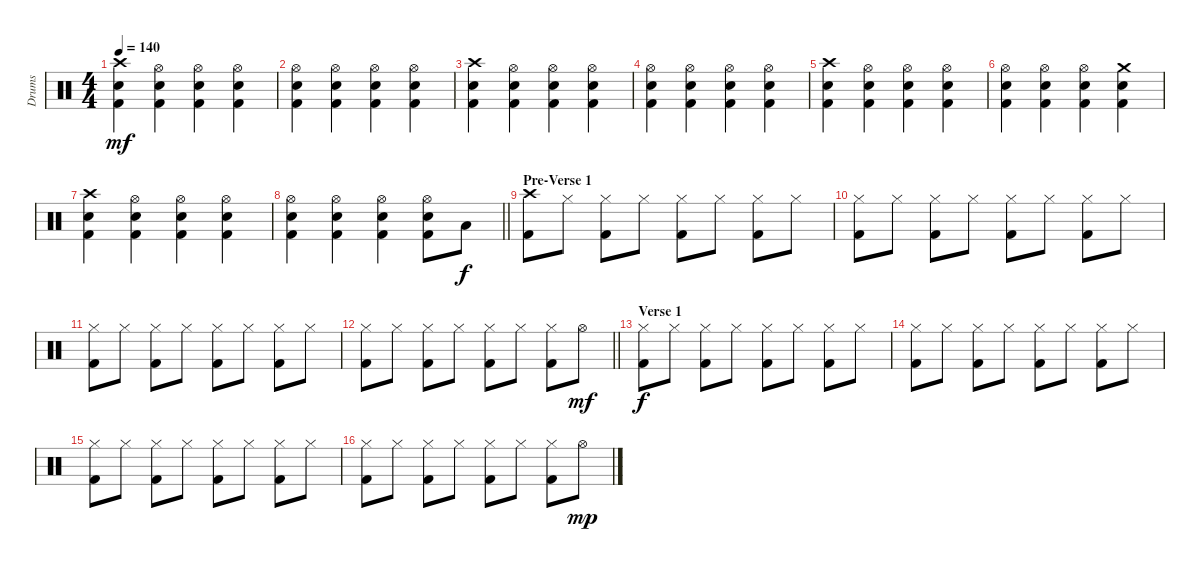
\track ("Drums" "Drums") {instrument percussion}
\staff {score}
\articulation defaults
\ts (4 4)
\tempo 140
\clef neutral
\ks c
("Crash high (hit)" "Electric Snare (hit)" "Kick (hit) 2").4{dy mf} ("Hi-Hat (open)" "Electric Snare (hit)" "Kick (hit) 2").4 ("Hi-Hat (open)" "Electric Snare (hit)" "Kick (hit) 2").4 ("Hi-Hat (open)" "Electric Snare (hit)" "Kick (hit) 2").4 |
("Hi-Hat (open)" "Electric Snare (hit)" "Kick (hit) 2").4 ("Hi-Hat (open)" "Electric Snare (hit)" "Kick (hit) 2").4 ("Hi-Hat (open)" "Electric Snare (hit)" "Kick (hit) 2").4 ("Hi-Hat (open)" "Electric Snare (hit)" "Kick (hit) 2").4 |
("Crash high (hit)" "Electric Snare (hit)" "Kick (hit) 2").4 ("Hi-Hat (open)" "Electric Snare (hit)" "Kick (hit) 2").4 ("Hi-Hat (open)" "Electric Snare (hit)" "Kick (hit) 2").4 ("Hi-Hat (open)" "Electric Snare (hit)" "Kick (hit) 2").4 |
("Hi-Hat (open)" "Electric Snare (hit)" "Kick (hit) 2").4 ("Hi-Hat (open)" "Electric Snare (hit)" "Kick (hit) 2").4 ("Hi-Hat (open)" "Electric Snare (hit)" "Kick (hit) 2").4 ("Hi-Hat (open)" "Electric Snare (hit)" "Kick (hit) 2").4 |
("Crash high (hit)" "Electric Snare (hit)" "Kick (hit) 2").4 ("Hi-Hat (open)" "Electric Snare (hit)" "Kick (hit) 2").4 ("Hi-Hat (open)" "Electric Snare (hit)" "Kick (hit) 2").4 ("Hi-Hat (open)" "Electric Snare (hit)" "Kick (hit) 2").4 |
("Hi-Hat (open)" "Electric Snare (hit)" "Kick (hit) 2").4 ("Hi-Hat (open)" "Electric Snare (hit)" "Kick (hit) 2").4 ("Hi-Hat (open)" "Electric Snare (hit)" "Kick (hit) 2").4 ("Crash medium (hit)" "Electric Snare (hit)" "Kick (hit) 2").4 |
("Crash high (hit)" "Electric Snare (hit)" "Kick (hit) 2").4 ("Hi-Hat (open)" "Electric Snare (hit)" "Kick (hit) 2").4 ("Hi-Hat (open)" "Electric Snare (hit)" "Kick (hit) 2").4 ("Hi-Hat (open)" "Electric Snare (hit)" "Kick (hit) 2").4 |
\barLineRight lightlight
("Hi-Hat (open)" "Electric Snare (hit)" "Kick (hit) 2").4 ("Hi-Hat (open)" "Electric Snare (hit)" "Kick (hit) 2").4 ("Hi-Hat (open)" "Electric Snare (hit)" "Kick (hit) 2").4 ("Hi-Hat (open)" "Electric Snare (hit)" "Kick (hit) 2").8 "Low Floor Tom (hit)".8{dy f} |
\section ("" "Pre-Verse 1")
("Crash high (hit)" "Kick (hit) 2").8 "Hi-Hat (closed)".8 ("Hi-Hat (closed)" "Kick (hit) 2").8 "Hi-Hat (closed)".8 ("Hi-Hat (closed)" "Kick (hit) 2").8 "Hi-Hat (closed)".8 ("Hi-Hat (closed)" "Kick (hit) 2").8 "Hi-Hat (closed)".8 |
("Hi-Hat (closed)" "Kick (hit) 2").8 "Hi-Hat (closed)".8 ("Hi-Hat (closed)" "Kick (hit) 2").8 "Hi-Hat (closed)".8 ("Hi-Hat (closed)" "Kick (hit) 2").8 "Hi-Hat (closed)".8 ("Hi-Hat (closed)" "Kick (hit) 2").8 "Hi-Hat (closed)".8 |
("Hi-Hat (closed)" "Kick (hit) 2").8 "Hi-Hat (closed)".8 ("Hi-Hat (closed)" "Kick (hit) 2").8 "Hi-Hat (closed)".8 ("Hi-Hat (closed)" "Kick (hit) 2").8 "Hi-Hat (closed)".8 ("Hi-Hat (closed)" "Kick (hit) 2").8 "Hi-Hat (closed)".8 |
\barLineRight lightlight
("Hi-Hat (closed)" "Kick (hit) 2").8 "Hi-Hat (closed)".8 ("Hi-Hat (closed)" "Kick (hit) 2").8 "Hi-Hat (closed)".8 ("Hi-Hat (closed)" "Kick (hit) 2").8 "Hi-Hat (closed)".8 ("Hi-Hat (closed)" "Kick (hit) 2").8 "Hi-Hat (open)".8{dy mf} |
\section ("" "Verse 1")
("Hi-Hat (closed)" "Kick (hit) 2").8{dy f} "Hi-Hat (closed)".8 ("Hi-Hat (closed)" "Kick (hit) 2").8 "Hi-Hat (closed)".8 ("Hi-Hat (closed)" "Kick (hit) 2").8 "Hi-Hat (closed)".8 ("Hi-Hat (closed)" "Kick (hit) 2").8 "Hi-Hat (closed)".8 |
("Hi-Hat (closed)" "Kick (hit) 2").8 "Hi-Hat (closed)".8 ("Hi-Hat (closed)" "Kick (hit) 2").8 "Hi-Hat (closed)".8 ("Hi-Hat (closed)" "Kick (hit) 2").8 "Hi-Hat (closed)".8 ("Hi-Hat (closed)" "Kick (hit) 2").8 "Hi-Hat (closed)".8 |
("Hi-Hat (closed)" "Kick (hit) 2").8 "Hi-Hat (closed)".8 ("Hi-Hat (closed)" "Kick (hit) 2").8 "Hi-Hat (closed)".8 ("Hi-Hat (closed)" "Kick (hit) 2").8 "Hi-Hat (closed)".8 ("Hi-Hat (closed)" "Kick (hit) 2").8 "Hi-Hat (closed)".8 |
("Hi-Hat (closed)" "Kick (hit) 2").8 "Hi-Hat (closed)".8 ("Hi-Hat (closed)" "Kick (hit) 2").8 "Hi-Hat (closed)".8 ("Hi-Hat (closed)" "Kick (hit) 2").8 "Hi-Hat (closed)".8 ("Hi-Hat (closed)" "Kick (hit) 2").8 "Hi-Hat (open)".8{dy mp}
